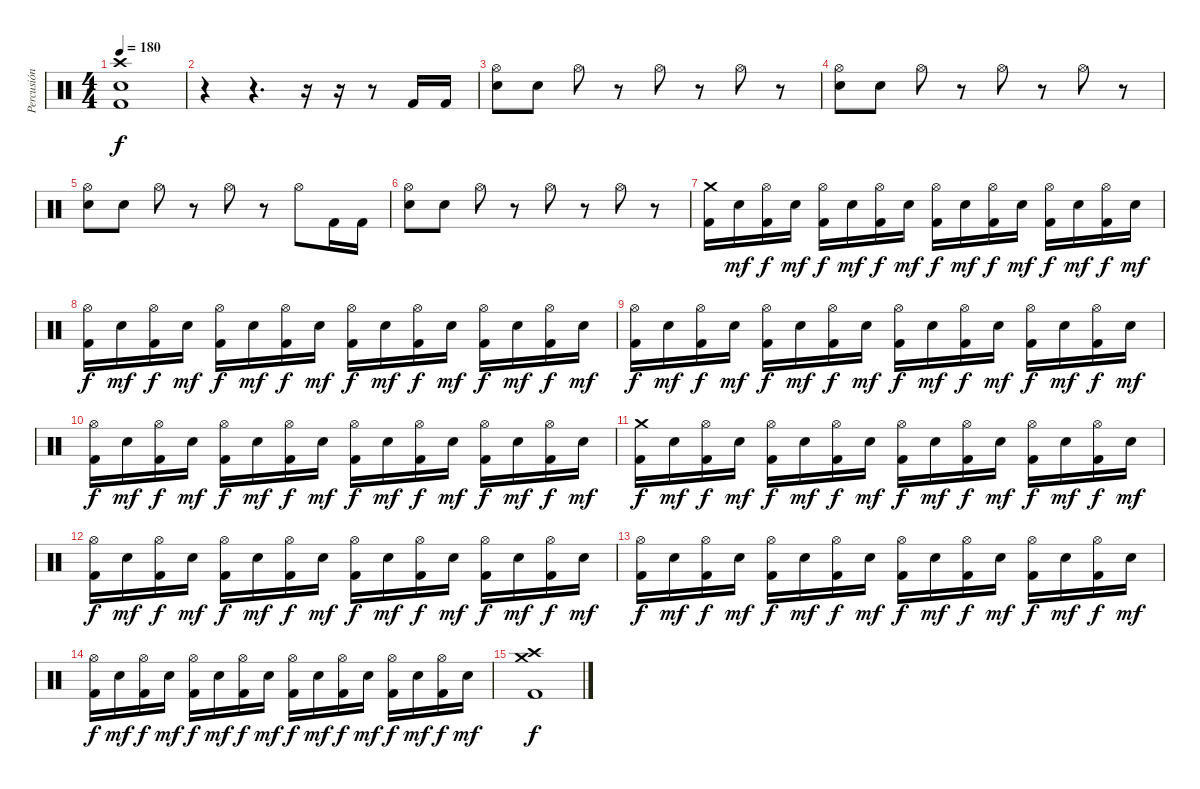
\track ("Percusión" "Percusión") {instrument percussion}
\staff {score}
\articulation defaults
\ts (4 4)
\tempo 180
\clef neutral
\ks c
("Crash high (hit)" "Electric Snare (hit)" "Kick (hit) 2").1{dy f} |
r.4 r.4{d} r.16 r.16 r.8 "Kick (hit) 2".16 "Kick (hit) 2".16 |
("Hi-Hat (open)" "Electric Snare (hit)").8 "Electric Snare (hit)".8 "Hi-Hat (open)".8 r.8 "Hi-Hat (open)".8 r.8 "Hi-Hat (open)".8 r.8 |
("Hi-Hat (open)" "Electric Snare (hit)").8 "Electric Snare (hit)".8 "Hi-Hat (open)".8 r.8 "Hi-Hat (open)".8 r.8 "Hi-Hat (open)".8 r.8 |
("Hi-Hat (open)" "Electric Snare (hit)").8 "Electric Snare (hit)".8 "Hi-Hat (open)".8 r.8 "Hi-Hat (open)".8 r.8 "Hi-Hat (open)".8 "Kick (hit) 2".16 "Kick (hit) 2".16 |
("Hi-Hat (open)" "Electric Snare (hit)").8 "Electric Snare (hit)".8 "Hi-Hat (open)".8 r.8 "Hi-Hat (open)".8 r.8 "Hi-Hat (open)".8 r.8 |
("Crash medium (hit)" "Kick (hit) 2").16 "Electric Snare (hit)".16{dy mf} ("Hi-Hat (open)" "Kick (hit) 2").16{dy f} "Electric Snare (hit)".16{dy mf} ("Hi-Hat (open)" "Kick (hit) 2").16{dy f} "Electric Snare (hit)".16{dy mf} ("Hi-Hat (open)" "Kick (hit) 2").16{dy f} "Electric Snare (hit)".16{dy mf} ("Hi-Hat (open)" "Kick (hit) 2").16{dy f} "Electric Snare (hit)".16{dy mf} ("Hi-Hat (open)" "Kick (hit) 2").16{dy f} "Electric Snare (hit)".16{dy mf} ("Hi-Hat (open)" "Kick (hit) 2").16{dy f} "Electric Snare (hit)".16{dy mf} ("Hi-Hat (open)" "Kick (hit) 2").16{dy f} "Electric Snare (hit)".16{dy mf} |
("Hi-Hat (open)" "Kick (hit) 2").16{dy f} "Electric Snare (hit)".16{dy mf} ("Hi-Hat (open)" "Kick (hit) 2").16{dy f} "Electric Snare (hit)".16{dy mf} ("Hi-Hat (open)" "Kick (hit) 2").16{dy f} "Electric Snare (hit)".16{dy mf} ("Hi-Hat (open)" "Kick (hit) 2").16{dy f} "Electric Snare (hit)".16{dy mf} ("Hi-Hat (open)" "Kick (hit) 2").16{dy f} "Electric Snare (hit)".16{dy mf} ("Hi-Hat (open)" "Kick (hit) 2").16{dy f} "Electric Snare (hit)".16{dy mf} ("Hi-Hat (open)" "Kick (hit) 2").16{dy f} "Electric Snare (hit)".16{dy mf} ("Hi-Hat (open)" "Kick (hit) 2").16{dy f} "Electric Snare (hit)".16{dy mf} |
("Hi-Hat (open)" "Kick (hit) 2").16{dy f} "Electric Snare (hit)".16{dy mf} ("Hi-Hat (open)" "Kick (hit) 2").16{dy f} "Electric Snare (hit)".16{dy mf} ("Hi-Hat (open)" "Kick (hit) 2").16{dy f} "Electric Snare (hit)".16{dy mf} ("Hi-Hat (open)" "Kick (hit) 2").16{dy f} "Electric Snare (hit)".16{dy mf} ("Hi-Hat (open)" "Kick (hit) 2").16{dy f} "Electric Snare (hit)".16{dy mf} ("Hi-Hat (open)" "Kick (hit) 2").16{dy f} "Electric Snare (hit)".16{dy mf} ("Hi-Hat (open)" "Kick (hit) 2").16{dy f} "Electric Snare (hit)".16{dy mf} ("Hi-Hat (open)" "Kick (hit) 2").16{dy f} "Electric Snare (hit)".16{dy mf} |
("Hi-Hat (open)" "Kick (hit) 2").16{dy f} "Electric Snare (hit)".16{dy mf} ("Hi-Hat (open)" "Kick (hit) 2").16{dy f} "Electric Snare (hit)".16{dy mf} ("Hi-Hat (open)" "Kick (hit) 2").16{dy f} "Electric Snare (hit)".16{dy mf} ("Hi-Hat (open)" "Kick (hit) 2").16{dy f} "Electric Snare (hit)".16{dy mf} ("Hi-Hat (open)" "Kick (hit) 2").16{dy f} "Electric Snare (hit)".16{dy mf} ("Hi-Hat (open)" "Kick (hit) 2").16{dy f} "Electric Snare (hit)".16{dy mf} ("Hi-Hat (open)" "Kick (hit) 2").16{dy f} "Electric Snare (hit)".16{dy mf} ("Hi-Hat (open)" "Kick (hit) 2").16{dy f} "Electric Snare (hit)".16{dy mf} |
("Crash medium (hit)" "Kick (hit) 2").16{dy f} "Electric Snare (hit)".16{dy mf} ("Hi-Hat (open)" "Kick (hit) 2").16{dy f} "Electric Snare (hit)".16{dy mf} ("Hi-Hat (open)" "Kick (hit) 2").16{dy f} "Electric Snare (hit)".16{dy mf} ("Hi-Hat (open)" "Kick (hit) 2").16{dy f} "Electric Snare (hit)".16{dy mf} ("Hi-Hat (open)" "Kick (hit) 2").16{dy f} "Electric Snare (hit)".16{dy mf} ("Hi-Hat (open)" "Kick (hit) 2").16{dy f} "Electric Snare (hit)".16{dy mf} ("Hi-Hat (open)" "Kick (hit) 2").16{dy f} "Electric Snare (hit)".16{dy mf} ("Hi-Hat (open)" "Kick (hit) 2").16{dy f} "Electric Snare (hit)".16{dy mf} |
("Hi-Hat (open)" "Kick (hit) 2").16{dy f} "Electric Snare (hit)".16{dy mf} ("Hi-Hat (open)" "Kick (hit) 2").16{dy f} "Electric Snare (hit)".16{dy mf} ("Hi-Hat (open)" "Kick (hit) 2").16{dy f} "Electric Snare (hit)".16{dy mf} ("Hi-Hat (open)" "Kick (hit) 2").16{dy f} "Electric Snare (hit)".16{dy mf} ("Hi-Hat (open)" "Kick (hit) 2").16{dy f} "Electric Snare (hit)".16{dy mf} ("Hi-Hat (open)" "Kick (hit) 2").16{dy f} "Electric Snare (hit)".16{dy mf} ("Hi-Hat (open)" "Kick (hit) 2").16{dy f} "Electric Snare (hit)".16{dy mf} ("Hi-Hat (open)" "Kick (hit) 2").16{dy f} "Electric Snare (hit)".16{dy mf} |
("Hi-Hat (open)" "Kick (hit) 2").16{dy f} "Electric Snare (hit)".16{dy mf} ("Hi-Hat (open)" "Kick (hit) 2").16{dy f} "Electric Snare (hit)".16{dy mf} ("Hi-Hat (open)" "Kick (hit) 2").16{dy f} "Electric Snare (hit)".16{dy mf} ("Hi-Hat (open)" "Kick (hit) 2").16{dy f} "Electric Snare (hit)".16{dy mf} ("Hi-Hat (open)" "Kick (hit) 2").16{dy f} "Electric Snare (hit)".16{dy mf} ("Hi-Hat (open)" "Kick (hit) 2").16{dy f} "Electric Snare (hit)".16{dy mf} ("Hi-Hat (open)" "Kick (hit) 2").16{dy f} "Electric Snare (hit)".16{dy mf} ("Hi-Hat (open)" "Kick (hit) 2").16{dy f} "Electric Snare (hit)".16{dy mf} |
("Hi-Hat (open)" "Kick (hit) 2").16{dy f} "Electric Snare (hit)".16{dy mf} ("Hi-Hat (open)" "Kick (hit) 2").16{dy f} "Electric Snare (hit)".16{dy mf} ("Hi-Hat (open)" "Kick (hit) 2").16{dy f} "Electric Snare (hit)".16{dy mf} ("Hi-Hat (open)" "Kick (hit) 2").16{dy f} "Electric Snare (hit)".16{dy mf} ("Hi-Hat (open)" "Kick (hit) 2").16{dy f} "Electric Snare (hit)".16{dy mf} ("Hi-Hat (open)" "Kick (hit) 2").16{dy f} "Electric Snare (hit)".16{dy mf} ("Hi-Hat (open)" "Kick (hit) 2").16{dy f} "Electric Snare (hit)".16{dy mf} ("Hi-Hat (open)" "Kick (hit) 2").16{dy f} "Electric Snare (hit)".16{dy mf} |
("Crash medium (hit)" "Crash high (hit)" "Kick (hit) 2").1{dy f}
